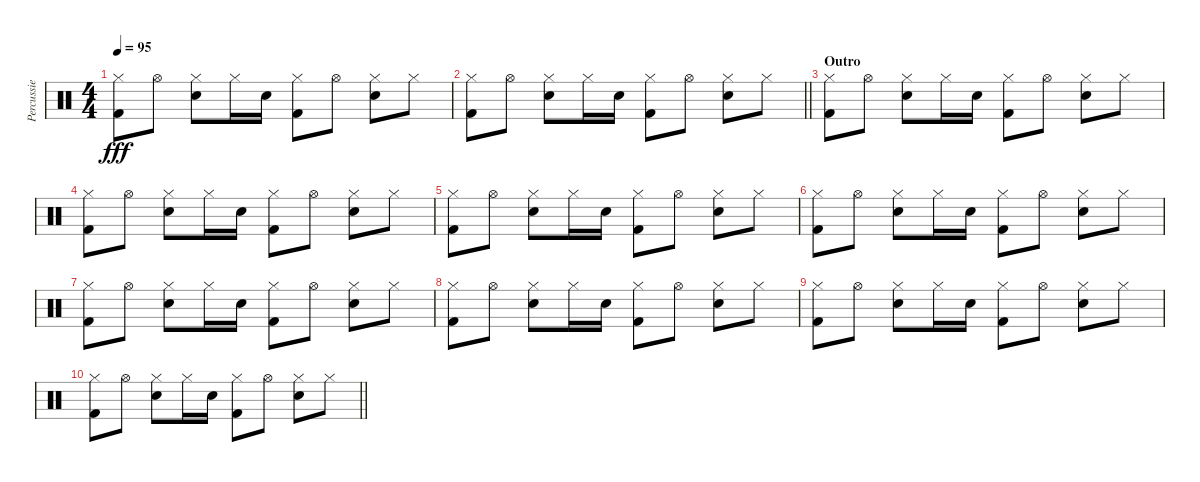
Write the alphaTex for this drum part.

\track ("Percussie" "Percussie") {instrument percussion}
\staff {score}
\articulation defaults
\ts (4 4)
\tempo 95
\clef neutral
\ks c
("Hi-Hat (closed)" "Kick (hit) 2").8{dy fff} "Hi-Hat (open)".8 ("Hi-Hat (closed)" "Snare (hit) 2").8 "Hi-Hat (closed)".16 "Snare (hit) 2".16 ("Hi-Hat (closed)" "Kick (hit) 2").8 "Hi-Hat (open)".8 ("Hi-Hat (closed)" "Snare (hit) 2").8 "Hi-Hat (closed)".8 |
\barLineRight lightlight
("Hi-Hat (closed)" "Kick (hit) 2").8 "Hi-Hat (open)".8 ("Hi-Hat (closed)" "Snare (hit) 2").8 "Hi-Hat (closed)".16 "Snare (hit) 2".16 ("Hi-Hat (closed)" "Kick (hit) 2").8 "Hi-Hat (open)".8 ("Hi-Hat (closed)" "Snare (hit) 2").8 "Hi-Hat (closed)".8 |
\section ("" "Outro")
("Hi-Hat (closed)" "Kick (hit) 2").8 "Hi-Hat (open)".8 ("Hi-Hat (closed)" "Snare (hit) 2").8 "Hi-Hat (closed)".16 "Snare (hit) 2".16 ("Hi-Hat (closed)" "Kick (hit) 2").8 "Hi-Hat (open)".8 ("Hi-Hat (closed)" "Snare (hit) 2").8 "Hi-Hat (closed)".8 |
("Hi-Hat (closed)" "Kick (hit) 2").8 "Hi-Hat (open)".8 ("Hi-Hat (closed)" "Snare (hit) 2").8 "Hi-Hat (closed)".16 "Snare (hit) 2".16 ("Hi-Hat (closed)" "Kick (hit) 2").8 "Hi-Hat (open)".8 ("Hi-Hat (closed)" "Snare (hit) 2").8 "Hi-Hat (closed)".8 |
("Hi-Hat (closed)" "Kick (hit) 2").8 "Hi-Hat (open)".8 ("Hi-Hat (closed)" "Snare (hit) 2").8 "Hi-Hat (closed)".16 "Snare (hit) 2".16 ("Hi-Hat (closed)" "Kick (hit) 2").8 "Hi-Hat (open)".8 ("Hi-Hat (closed)" "Snare (hit) 2").8 "Hi-Hat (closed)".8 |
("Hi-Hat (closed)" "Kick (hit) 2").8 "Hi-Hat (open)".8 ("Hi-Hat (closed)" "Snare (hit) 2").8 "Hi-Hat (closed)".16 "Snare (hit) 2".16 ("Hi-Hat (closed)" "Kick (hit) 2").8 "Hi-Hat (open)".8 ("Hi-Hat (closed)" "Snare (hit) 2").8 "Hi-Hat (closed)".8 |
("Hi-Hat (closed)" "Kick (hit) 2").8{volume 0} "Hi-Hat (open)".8 ("Hi-Hat (closed)" "Snare (hit) 2").8 "Hi-Hat (closed)".16 "Snare (hit) 2".16 ("Hi-Hat (closed)" "Kick (hit) 2").8 "Hi-Hat (open)".8 ("Hi-Hat (closed)" "Snare (hit) 2").8 "Hi-Hat (closed)".8 |
("Hi-Hat (closed)" "Kick (hit) 2").8 "Hi-Hat (open)".8 ("Hi-Hat (closed)" "Snare (hit) 2").8 "Hi-Hat (closed)".16 "Snare (hit) 2".16 ("Hi-Hat (closed)" "Kick (hit) 2").8 "Hi-Hat (open)".8 ("Hi-Hat (closed)" "Snare (hit) 2").8 "Hi-Hat (closed)".8 |
("Hi-Hat (closed)" "Kick (hit) 2").8 "Hi-Hat (open)".8 ("Hi-Hat (closed)" "Snare (hit) 2").8 "Hi-Hat (closed)".16 "Snare (hit) 2".16 ("Hi-Hat (closed)" "Kick (hit) 2").8 "Hi-Hat (open)".8 ("Hi-Hat (closed)" "Snare (hit) 2").8 "Hi-Hat (closed)".8 |
\barLineRight lightlight
("Hi-Hat (closed)" "Kick (hit) 2").8 "Hi-Hat (open)".8 ("Hi-Hat (closed)" "Snare (hit) 2").8 "Hi-Hat (closed)".16 "Snare (hit) 2".16 ("Hi-Hat (closed)" "Kick (hit) 2").8 "Hi-Hat (open)".8 ("Hi-Hat (closed)" "Snare (hit) 2").8 "Hi-Hat (closed)".8
